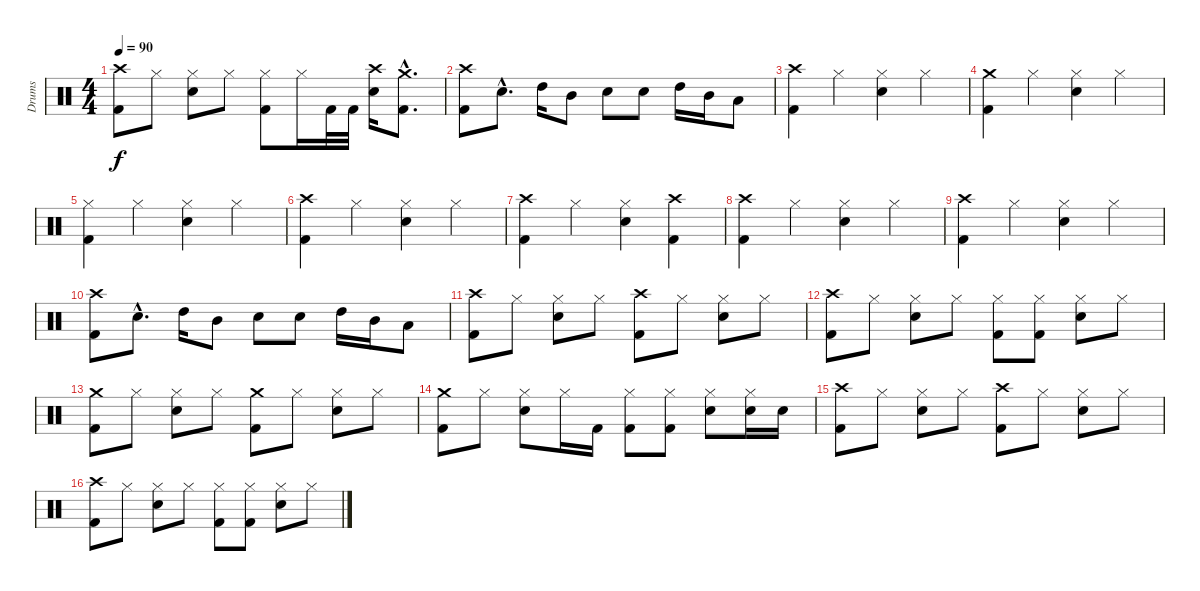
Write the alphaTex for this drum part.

\track ("Drums" "Drums") {instrument percussion}
\staff {score}
\articulation defaults
\ts (4 4)
\tempo 90
\clef neutral
\ks c
("Crash high (hit)" "Kick (hit) 2").8{dy f} "Hi-Hat (closed)".8 ("Hi-Hat (closed)" "Snare (hit) 2").8 "Hi-Hat (closed)".8 ("Hi-Hat (closed)" "Kick (hit) 2").8 "Hi-Hat (closed)".16 "Kick (hit) 2".32 "Kick (hit) 2".32 ("Crash high (hit)" "Snare (hit) 2").16 ("Crash medium (hit)"{hac} "Kick (hit) 2"{hac}).8{d} |
("Crash high (hit)" "Kick (hit) 2").8 "Snare (hit) 2"{hac}.8{d} "High Tom (hit)".16 "Mid Tom (hit)".8 "Snare (hit) 2".8 "Snare (hit) 2".8 "High Tom (hit)".16 "Mid Tom (hit)".16 "Low Tom (hit)".8 |
("Crash high (hit)" "Kick (hit) 2").4 "Hi-Hat (closed)".4 ("Hi-Hat (closed)" "Snare (hit) 2").4 "Hi-Hat (closed)".4 |
("Crash medium (hit)" "Kick (hit) 2").4 "Hi-Hat (closed)".4 ("Hi-Hat (closed)" "Snare (hit) 2").4 "Hi-Hat (closed)".4 |
("Hi-Hat (closed)" "Kick (hit) 2").4 "Hi-Hat (closed)".4 ("Hi-Hat (closed)" "Snare (hit) 2").4 "Hi-Hat (closed)".4 |
("Crash high (hit)" "Kick (hit) 2").4 "Hi-Hat (closed)".4 ("Hi-Hat (closed)" "Snare (hit) 2").4 "Hi-Hat (closed)".4 |
("Crash high (hit)" "Kick (hit) 2").4 "Hi-Hat (closed)".4 ("Hi-Hat (closed)" "Snare (hit) 2").4 ("Crash high (hit)" "Kick (hit) 2").4 |
("Crash high (hit)" "Kick (hit) 2").4 "Hi-Hat (closed)".4 ("Hi-Hat (closed)" "Snare (hit) 2").4 "Hi-Hat (closed)".4 |
("Crash high (hit)" "Kick (hit) 2").4 "Hi-Hat (closed)".4 ("Hi-Hat (closed)" "Snare (hit) 2").4 "Hi-Hat (closed)".4 |
("Crash high (hit)" "Kick (hit) 2").8 "Snare (hit) 2"{hac}.8{d} "High Tom (hit)".16 "Mid Tom (hit)".8 "Snare (hit) 2".8 "Snare (hit) 2".8 "High Tom (hit)".16 "Mid Tom (hit)".16 "Low Tom (hit)".8 |
("Crash high (hit)" "Kick (hit) 2").8 "Hi-Hat (closed)".8 ("Hi-Hat (closed)" "Snare (hit) 2").8 "Hi-Hat (closed)".8 ("Crash high (hit)" "Kick (hit) 2").8 "Hi-Hat (closed)".8 ("Hi-Hat (closed)" "Snare (hit) 2").8 "Hi-Hat (closed)".8 |
("Crash high (hit)" "Kick (hit) 2").8 "Hi-Hat (closed)".8 ("Hi-Hat (closed)" "Snare (hit) 2").8 "Hi-Hat (closed)".8 ("Hi-Hat (closed)" "Kick (hit) 2").8 ("Hi-Hat (closed)" "Kick (hit) 2").8 ("Hi-Hat (closed)" "Snare (hit) 2").8 "Hi-Hat (closed)".8 |
("Crash medium (hit)" "Kick (hit) 2").8 "Hi-Hat (closed)".8 ("Hi-Hat (closed)" "Snare (hit) 2").8 "Hi-Hat (closed)".8 ("Crash medium (hit)" "Kick (hit) 2").8 "Hi-Hat (closed)".8 ("Hi-Hat (closed)" "Snare (hit) 2").8 "Hi-Hat (closed)".8 |
("Crash medium (hit)" "Kick (hit) 2").8 "Hi-Hat (closed)".8 ("Hi-Hat (closed)" "Snare (hit) 2").8 "Hi-Hat (closed)".16 "Kick (hit) 2".16 ("Hi-Hat (closed)" "Kick (hit) 2").8 ("Hi-Hat (closed)" "Kick (hit) 2").8 ("Hi-Hat (closed)" "Snare (hit) 2").8 ("Hi-Hat (closed)" "Snare (hit) 2").16 "Snare (hit) 2".16 |
("Crash high (hit)" "Kick (hit) 2").8 "Hi-Hat (closed)".8 ("Hi-Hat (closed)" "Snare (hit) 2").8 "Hi-Hat (closed)".8 ("Crash high (hit)" "Kick (hit) 2").8 "Hi-Hat (closed)".8 ("Hi-Hat (closed)" "Snare (hit) 2").8 "Hi-Hat (closed)".8 |
("Crash high (hit)" "Kick (hit) 2").8 "Hi-Hat (closed)".8 ("Hi-Hat (closed)" "Snare (hit) 2").8 "Hi-Hat (closed)".8 ("Hi-Hat (closed)" "Kick (hit) 2").8 ("Hi-Hat (closed)" "Kick (hit) 2").8 ("Hi-Hat (closed)" "Snare (hit) 2").8 "Hi-Hat (closed)".8
